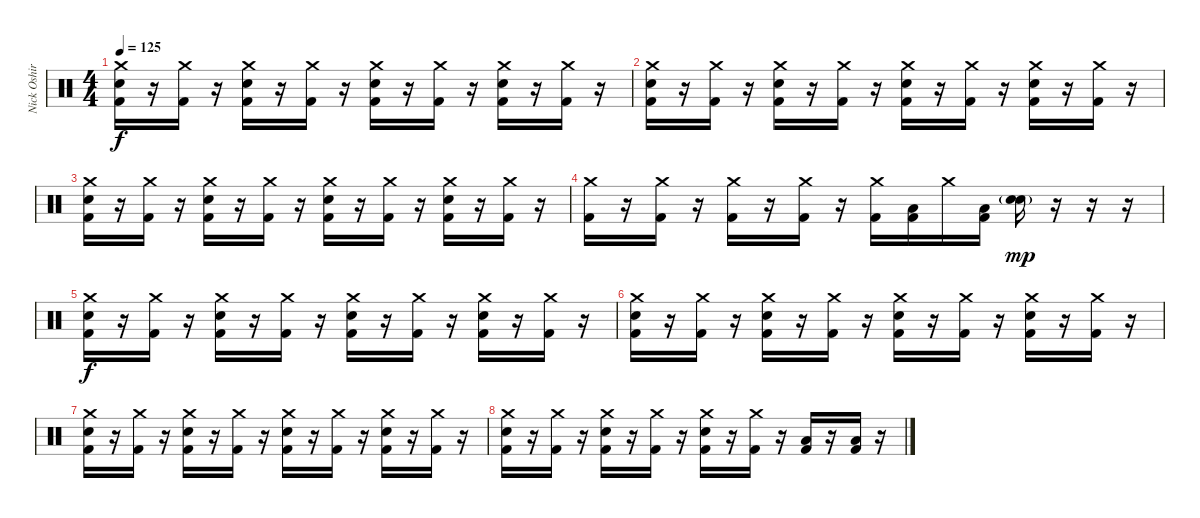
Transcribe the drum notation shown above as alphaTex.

\track ("Nick Oshiro - Drums" "Nick Oshir") {instrument percussion}
\staff {score}
\articulation defaults
\ts (4 4)
\tempo 125
\clef neutral
\ks c
("Crash medium (hit)" "Snare (hit) 2" "Kick (hit) 2").16{dy f} r.16 ("Crash medium (hit)" "Kick (hit) 2").16 r.16 ("Crash medium (hit)" "Snare (hit) 2" "Kick (hit) 2").16 r.16 ("Crash medium (hit)" "Kick (hit) 2").16 r.16 ("Crash medium (hit)" "Snare (hit) 2" "Kick (hit) 2").16 r.16 ("Crash medium (hit)" "Kick (hit) 2").16 r.16 ("Crash medium (hit)" "Snare (hit) 2" "Kick (hit) 2").16 r.16 ("Crash medium (hit)" "Kick (hit) 2").16 r.16 |
("Crash medium (hit)" "Snare (hit) 2" "Kick (hit) 2").16 r.16 ("Crash medium (hit)" "Kick (hit) 2").16 r.16 ("Crash medium (hit)" "Snare (hit) 2" "Kick (hit) 2").16 r.16 ("Crash medium (hit)" "Kick (hit) 2").16 r.16 ("Crash medium (hit)" "Snare (hit) 2" "Kick (hit) 2").16 r.16 ("Crash medium (hit)" "Kick (hit) 2").16 r.16 ("Crash medium (hit)" "Snare (hit) 2" "Kick (hit) 2").16 r.16 ("Crash medium (hit)" "Kick (hit) 2").16 r.16 |
("Crash medium (hit)" "Snare (hit) 2" "Kick (hit) 2").16 r.16 ("Crash medium (hit)" "Kick (hit) 2").16 r.16 ("Crash medium (hit)" "Snare (hit) 2" "Kick (hit) 2").16 r.16 ("Crash medium (hit)" "Kick (hit) 2").16 r.16 ("Crash medium (hit)" "Snare (hit) 2" "Kick (hit) 2").16 r.16 ("Crash medium (hit)" "Kick (hit) 2").16 r.16 ("Crash medium (hit)" "Snare (hit) 2" "Kick (hit) 2").16 r.16 ("Crash medium (hit)" "Kick (hit) 2").16 r.16 |
("Crash medium (hit)" "Kick (hit) 2").16 r.16 ("Crash medium (hit)" "Kick (hit) 2").16 r.16 ("Crash medium (hit)" "Kick (hit) 2").16 r.16 ("Crash medium (hit)" "Kick (hit) 2").16 r.16 ("Crash medium (hit)" "Kick (hit) 2").16 ("Low Floor Tom (hit)" "Kick (hit) 2").16 "Crash medium (hit)".16 ("Low Floor Tom (hit)" "Kick (hit) 2").16 ("Snare (hit) 2"{g} "Snare (hit) 2").16{dy mp} r.16 r.16 r.16 |
("Crash medium (hit)" "Snare (hit) 2" "Kick (hit) 2").16{dy f} r.16 ("Crash medium (hit)" "Kick (hit) 2").16 r.16 ("Crash medium (hit)" "Snare (hit) 2" "Kick (hit) 2").16 r.16 ("Crash medium (hit)" "Kick (hit) 2").16 r.16 ("Crash medium (hit)" "Snare (hit) 2" "Kick (hit) 2").16 r.16 ("Crash medium (hit)" "Kick (hit) 2").16 r.16 ("Crash medium (hit)" "Snare (hit) 2" "Kick (hit) 2").16 r.16 ("Crash medium (hit)" "Kick (hit) 2").16 r.16 |
("Crash medium (hit)" "Snare (hit) 2" "Kick (hit) 2").16 r.16 ("Crash medium (hit)" "Kick (hit) 2").16 r.16 ("Crash medium (hit)" "Snare (hit) 2" "Kick (hit) 2").16 r.16 ("Crash medium (hit)" "Kick (hit) 2").16 r.16 ("Crash medium (hit)" "Snare (hit) 2" "Kick (hit) 2").16 r.16 ("Crash medium (hit)" "Kick (hit) 2").16 r.16 ("Crash medium (hit)" "Snare (hit) 2" "Kick (hit) 2").16 r.16 ("Crash medium (hit)" "Kick (hit) 2").16 r.16 |
("Crash medium (hit)" "Snare (hit) 2" "Kick (hit) 2").16 r.16 ("Crash medium (hit)" "Kick (hit) 2").16 r.16 ("Crash medium (hit)" "Snare (hit) 2" "Kick (hit) 2").16 r.16 ("Crash medium (hit)" "Kick (hit) 2").16 r.16 ("Crash medium (hit)" "Snare (hit) 2" "Kick (hit) 2").16 r.16 ("Crash medium (hit)" "Kick (hit) 2").16 r.16 ("Crash medium (hit)" "Snare (hit) 2" "Kick (hit) 2").16 r.16 ("Crash medium (hit)" "Kick (hit) 2").16 r.16 |
("Crash medium (hit)" "Snare (hit) 2" "Kick (hit) 2").16 r.16 ("Crash medium (hit)" "Kick (hit) 2").16 r.16 ("Crash medium (hit)" "Snare (hit) 2" "Kick (hit) 2").16 r.16 ("Crash medium (hit)" "Kick (hit) 2").16 r.16 ("Crash medium (hit)" "Snare (hit) 2" "Kick (hit) 2").16 r.16 ("Crash medium (hit)" "Kick (hit) 2").16 r.16 ("Low Floor Tom (hit)" "Kick (hit) 2").16 r.16 ("Low Floor Tom (hit)" "Kick (hit) 2").16 r.16
